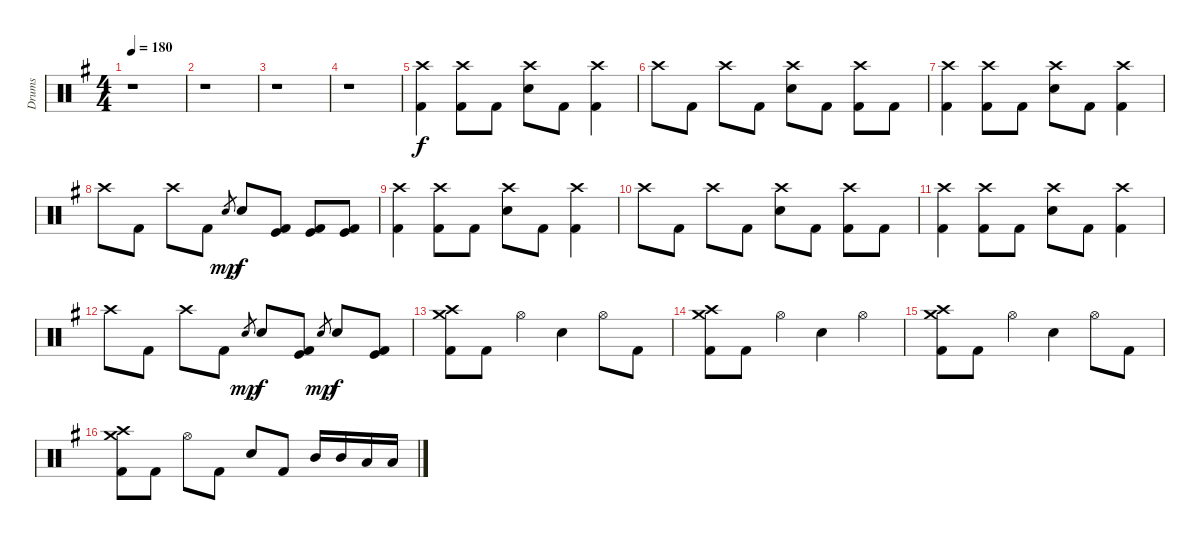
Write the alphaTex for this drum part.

\track ("Drums" "Drums") {instrument percussion}
\staff {score}
\articulation defaults
\ts (4 4)
\tempo 180
\clef neutral
\ks g
r.1{dy f} |
r.1 |
r.1 |
r.1 |
("Crash high (hit)" "Kick (hit) 2").4 ("Crash high (hit)" "Kick (hit) 2").8 "Kick (hit) 2".8 ("Crash high (hit)" "Electric Snare (hit)").8 "Kick (hit) 2".8 ("Crash high (hit)" "Kick (hit) 2").4 |
"Crash high (hit)".8 "Kick (hit) 2".8 "Crash high (hit)".8 "Kick (hit) 2".8 ("Crash high (hit)" "Electric Snare (hit)").8 "Kick (hit) 2".8 ("Crash high (hit)" "Kick (hit) 2").8 "Kick (hit) 2".8 |
("Crash high (hit)" "Kick (hit) 2").4 ("Crash high (hit)" "Kick (hit) 2").8 "Kick (hit) 2".8 ("Crash high (hit)" "Electric Snare (hit)").8 "Kick (hit) 2".8 ("Crash high (hit)" "Kick (hit) 2").4 |
"Crash high (hit)".8 "Kick (hit) 2".8 "Crash high (hit)".8 "Kick (hit) 2".8 "Electric Snare (hit)".8{gr dy mp} "Electric Snare (hit)".8{dy f} ("Kick (hit)" "Kick (hit) 2").8 ("Kick (hit)" "Kick (hit) 2").8 ("Kick (hit)" "Kick (hit) 2").8 |
("Crash high (hit)" "Kick (hit) 2").4 ("Crash high (hit)" "Kick (hit) 2").8 "Kick (hit) 2".8 ("Crash high (hit)" "Electric Snare (hit)").8 "Kick (hit) 2".8 ("Crash high (hit)" "Kick (hit) 2").4 |
"Crash high (hit)".8 "Kick (hit) 2".8 "Crash high (hit)".8 "Kick (hit) 2".8 ("Crash high (hit)" "Electric Snare (hit)").8 "Kick (hit) 2".8 ("Crash high (hit)" "Kick (hit) 2").8 "Kick (hit) 2".8 |
("Crash high (hit)" "Kick (hit) 2").4 ("Crash high (hit)" "Kick (hit) 2").8 "Kick (hit) 2".8 ("Crash high (hit)" "Electric Snare (hit)").8 "Kick (hit) 2".8 ("Crash high (hit)" "Kick (hit) 2").4 |
"Crash high (hit)".8 "Kick (hit) 2".8 "Crash high (hit)".8 "Kick (hit) 2".8 "Electric Snare (hit)".8{gr dy mp} "Electric Snare (hit)".8{dy f} ("Kick (hit)" "Kick (hit) 2").8 "Electric Snare (hit)".8{gr dy mp} "Electric Snare (hit)".8{dy f} ("Kick (hit)" "Kick (hit) 2").8 |
("Crash high (hit)" "Crash medium (hit)" "Kick (hit) 2").8 "Kick (hit) 2".8 "Hi-Hat (open)".4 "Electric Snare (hit)".4 "Hi-Hat (open)".8 "Kick (hit) 2".8 |
("Crash high (hit)" "Crash medium (hit)" "Kick (hit) 2").8 "Kick (hit) 2".8 "Hi-Hat (open)".4 "Electric Snare (hit)".4 "Hi-Hat (open)".4 |
("Crash high (hit)" "Crash medium (hit)" "Kick (hit) 2").8 "Kick (hit) 2".8 "Hi-Hat (open)".4 "Electric Snare (hit)".4 "Hi-Hat (open)".8 "Kick (hit) 2".8 |
("Crash medium (hit)" "Crash high (hit)" "Kick (hit) 2").8 "Kick (hit) 2".8 "Hi-Hat (open)".8 "Kick (hit) 2".8 "Electric Snare (hit)".8 "Kick (hit) 2".8 "Mid Tom (hit)".16 "Mid Tom (hit)".16 "Low Tom (hit)".16 "Low Tom (hit)".16
